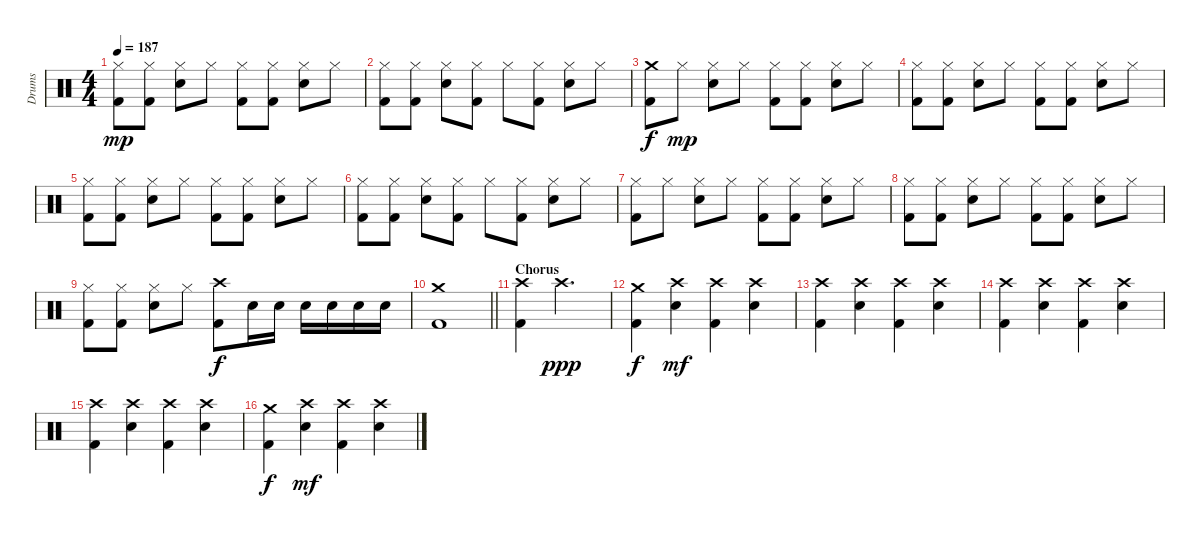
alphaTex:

\track ("Drums" "Drums") {instrument percussion}
\staff {score}
\articulation defaults
\ts (4 4)
\tempo 187
\clef neutral
\ks c
("Hi-Hat (closed)" "Kick (hit) 2").8{dy mp} ("Hi-Hat (closed)" "Kick (hit) 2").8 ("Hi-Hat (closed)" "Snare (hit) 2").8 "Hi-Hat (closed)".8 ("Hi-Hat (closed)" "Kick (hit) 2").8 ("Hi-Hat (closed)" "Kick (hit) 2").8 ("Hi-Hat (closed)" "Snare (hit) 2").8 "Hi-Hat (closed)".8 |
("Hi-Hat (closed)" "Kick (hit) 2").8 ("Hi-Hat (closed)" "Kick (hit) 2").8 ("Hi-Hat (closed)" "Snare (hit) 2").8 ("Hi-Hat (closed)" "Kick (hit) 2").8 "Hi-Hat (closed)".8 ("Hi-Hat (closed)" "Kick (hit) 2").8 ("Hi-Hat (closed)" "Snare (hit) 2").8 "Hi-Hat (closed)".8 |
("Crash medium (hit)" "Kick (hit) 2").8{dy f} "Hi-Hat (closed)".8{dy mp} ("Hi-Hat (closed)" "Snare (hit) 2").8 "Hi-Hat (closed)".8 ("Hi-Hat (closed)" "Kick (hit) 2").8 ("Hi-Hat (closed)" "Kick (hit) 2").8 ("Hi-Hat (closed)" "Snare (hit) 2").8 "Hi-Hat (closed)".8 |
("Hi-Hat (closed)" "Kick (hit) 2").8 ("Hi-Hat (closed)" "Kick (hit) 2").8 ("Hi-Hat (closed)" "Snare (hit) 2").8 "Hi-Hat (closed)".8 ("Hi-Hat (closed)" "Kick (hit) 2").8 ("Hi-Hat (closed)" "Kick (hit) 2").8 ("Hi-Hat (closed)" "Snare (hit) 2").8 "Hi-Hat (closed)".8 |
("Hi-Hat (closed)" "Kick (hit) 2").8 ("Hi-Hat (closed)" "Kick (hit) 2").8 ("Hi-Hat (closed)" "Snare (hit) 2").8 "Hi-Hat (closed)".8 ("Hi-Hat (closed)" "Kick (hit) 2").8 ("Hi-Hat (closed)" "Kick (hit) 2").8 ("Hi-Hat (closed)" "Snare (hit) 2").8 "Hi-Hat (closed)".8 |
("Hi-Hat (closed)" "Kick (hit) 2").8 ("Hi-Hat (closed)" "Kick (hit) 2").8 ("Hi-Hat (closed)" "Snare (hit) 2").8 ("Hi-Hat (closed)" "Kick (hit) 2").8 "Hi-Hat (closed)".8 ("Hi-Hat (closed)" "Kick (hit) 2").8 ("Hi-Hat (closed)" "Snare (hit) 2").8 "Hi-Hat (closed)".8 |
("Hi-Hat (closed)" "Kick (hit) 2").8 "Hi-Hat (closed)".8 ("Hi-Hat (closed)" "Snare (hit) 2").8 "Hi-Hat (closed)".8 ("Hi-Hat (closed)" "Kick (hit) 2").8 ("Hi-Hat (closed)" "Kick (hit) 2").8 ("Hi-Hat (closed)" "Snare (hit) 2").8 "Hi-Hat (closed)".8 |
("Hi-Hat (closed)" "Kick (hit) 2").8 ("Hi-Hat (closed)" "Kick (hit) 2").8 ("Hi-Hat (closed)" "Snare (hit) 2").8 "Hi-Hat (closed)".8 ("Hi-Hat (closed)" "Kick (hit) 2").8 ("Hi-Hat (closed)" "Kick (hit) 2").8 ("Hi-Hat (closed)" "Snare (hit) 2").8 "Hi-Hat (closed)".8 |
("Hi-Hat (closed)" "Kick (hit) 2").8 ("Hi-Hat (closed)" "Kick (hit) 2").8 ("Hi-Hat (closed)" "Snare (hit) 2").8 "Hi-Hat (closed)".8 ("Crash high (hit)" "Kick (hit) 2").8{dy f} "Snare (hit) 2".16 "Snare (hit) 2".16 "Snare (hit) 2".16 "Snare (hit) 2".16 "Snare (hit) 2".16 "Snare (hit) 2".16 |
\barLineRight lightlight
("Crash medium (hit)" "Kick (hit) 2").1 |
\section ("" "Chorus")
("Crash high (hit)" "Kick (hit) 2").4 "Crash high (hit)".2{d dy ppp} |
("Crash medium (hit)" "Kick (hit) 2").4{dy f} ("Crash high (hit)" "Snare (hit) 2").4{dy mf} ("Crash high (hit)" "Kick (hit) 2").4 ("Crash high (hit)" "Snare (hit) 2").4 |
("Crash high (hit)" "Kick (hit) 2").4 ("Crash high (hit)" "Snare (hit) 2").4 ("Crash high (hit)" "Kick (hit) 2").4 ("Crash high (hit)" "Snare (hit) 2").4 |
("Crash high (hit)" "Kick (hit) 2").4 ("Crash high (hit)" "Snare (hit) 2").4 ("Crash high (hit)" "Kick (hit) 2").4 ("Crash high (hit)" "Snare (hit) 2").4 |
("Crash high (hit)" "Kick (hit) 2").4 ("Crash high (hit)" "Snare (hit) 2").4 ("Crash high (hit)" "Kick (hit) 2").4 ("Crash high (hit)" "Snare (hit) 2").4 |
("Crash medium (hit)" "Kick (hit) 2").4{dy f} ("Crash high (hit)" "Snare (hit) 2").4{dy mf} ("Crash high (hit)" "Kick (hit) 2").4 ("Crash high (hit)" "Snare (hit) 2").4
